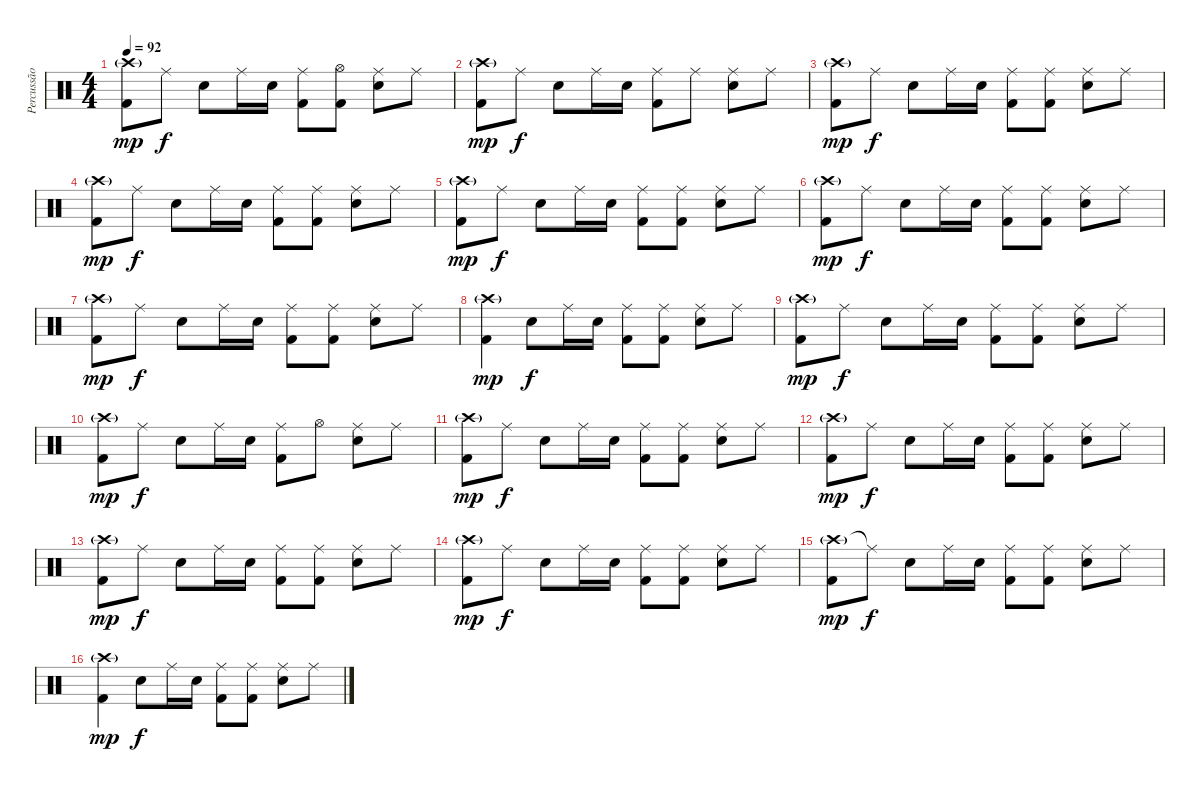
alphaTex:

\track ("Percussão - Drums" "Percussão ") {instrument percussion}
\staff {score}
\articulation defaults
\ts (4 4)
\tempo 92
\clef neutral
\ks c
("Crash high (hit)"{g} "Kick (hit) 2").8{dy mp} "Ride (middle)".8{dy f} "Snare (hit) 2".8 "Ride (middle)".16 "Snare (hit) 2".16 ("Ride (middle)" "Kick (hit) 2").8 ("Hi-Hat (open)" "Kick (hit) 2").8 ("Ride (middle)" "Snare (hit) 2").8 "Ride (middle)".8 |
("Crash high (hit)"{g} "Kick (hit) 2").8{dy mp} "Ride (middle)".8{dy f} "Snare (hit) 2".8 "Ride (middle)".16 "Snare (hit) 2".16 ("Ride (middle)" "Kick (hit) 2").8 "Ride (middle)".8 ("Ride (middle)" "Snare (hit) 2").8 "Ride (middle)".8 |
("Crash high (hit)"{g} "Kick (hit) 2").8{dy mp} "Ride (middle)".8{dy f} "Snare (hit) 2".8 "Ride (middle)".16 "Snare (hit) 2".16 ("Ride (middle)" "Kick (hit) 2").8 ("Ride (middle)" "Kick (hit) 2").8 ("Ride (middle)" "Snare (hit) 2").8 "Ride (middle)".8 |
("Crash high (hit)"{g} "Kick (hit) 2").8{dy mp} "Ride (middle)".8{dy f} "Snare (hit) 2".8 "Ride (middle)".16 "Snare (hit) 2".16 ("Ride (middle)" "Kick (hit) 2").8 ("Ride (middle)" "Kick (hit) 2").8 ("Ride (middle)" "Snare (hit) 2").8 "Ride (middle)".8 |
("Crash high (hit)"{g} "Kick (hit) 2").8{dy mp} "Ride (middle)".8{dy f} "Snare (hit) 2".8 "Ride (middle)".16 "Snare (hit) 2".16 ("Ride (middle)" "Kick (hit) 2").8 ("Ride (middle)" "Kick (hit) 2").8 ("Ride (middle)" "Snare (hit) 2").8 "Ride (middle)".8 |
("Crash high (hit)"{g} "Kick (hit) 2").8{dy mp} "Ride (middle)".8{dy f} "Snare (hit) 2".8 "Ride (middle)".16 "Snare (hit) 2".16 ("Ride (middle)" "Kick (hit) 2").8 ("Ride (middle)" "Kick (hit) 2").8 ("Ride (middle)" "Snare (hit) 2").8 "Ride (middle)".8 |
("Crash high (hit)"{g} "Kick (hit) 2").8{dy mp} "Ride (middle)".8{dy f} "Snare (hit) 2".8 "Ride (middle)".16 "Snare (hit) 2".16 ("Ride (middle)" "Kick (hit) 2").8 ("Ride (middle)" "Kick (hit) 2").8 ("Ride (middle)" "Snare (hit) 2").8 "Ride (middle)".8 |
("Crash high (hit)"{g} "Kick (hit) 2").4{dy mp} "Snare (hit) 2".8{dy f} "Ride (middle)".16 "Snare (hit) 2".16 ("Ride (middle)" "Kick (hit) 2").8 ("Ride (middle)" "Kick (hit) 2").8 ("Ride (middle)" "Snare (hit) 2").8 "Ride (middle)".8 |
("Crash high (hit)"{g} "Kick (hit) 2").8{dy mp} "Ride (middle)".8{dy f} "Snare (hit) 2".8 "Ride (middle)".16 "Snare (hit) 2".16 ("Ride (middle)" "Kick (hit) 2").8 ("Ride (middle)" "Kick (hit) 2").8 ("Ride (middle)" "Snare (hit) 2").8 "Ride (middle)".8 |
("Crash high (hit)"{g} "Kick (hit) 2").8{dy mp} "Ride (middle)".8{dy f} "Snare (hit) 2".8 "Ride (middle)".16 "Snare (hit) 2".16 ("Ride (middle)" "Kick (hit) 2").8 "Hi-Hat (open)".8 ("Ride (middle)" "Snare (hit) 2").8 "Ride (middle)".8 |
("Crash high (hit)"{g} "Kick (hit) 2").8{dy mp} "Ride (middle)".8{dy f} "Snare (hit) 2".8 "Ride (middle)".16 "Snare (hit) 2".16 ("Ride (middle)" "Kick (hit) 2").8 ("Ride (middle)" "Kick (hit) 2").8 ("Ride (middle)" "Snare (hit) 2").8 "Ride (middle)".8 |
("Crash high (hit)"{g} "Kick (hit) 2").8{dy mp} "Ride (middle)".8{dy f} "Snare (hit) 2".8 "Ride (middle)".16 "Snare (hit) 2".16 ("Ride (middle)" "Kick (hit) 2").8 ("Ride (middle)" "Kick (hit) 2").8 ("Ride (middle)" "Snare (hit) 2").8 "Ride (middle)".8 |
("Crash high (hit)"{g} "Kick (hit) 2").8{dy mp} "Ride (middle)".8{dy f} "Snare (hit) 2".8 "Ride (middle)".16 "Snare (hit) 2".16 ("Ride (middle)" "Kick (hit) 2").8 ("Ride (middle)" "Kick (hit) 2").8 ("Ride (middle)" "Snare (hit) 2").8 "Ride (middle)".8 |
("Crash high (hit)"{g} "Kick (hit) 2").8{dy mp} "Ride (middle)".8{dy f} "Snare (hit) 2".8 "Ride (middle)".16 "Snare (hit) 2".16 ("Ride (middle)" "Kick (hit) 2").8 ("Ride (middle)" "Kick (hit) 2").8 ("Ride (middle)" "Snare (hit) 2").8 "Ride (middle)".8 |
("Crash high (hit)"{g} "Kick (hit) 2").8{dy mp} "Ride (middle)"{t}.8{dy f} "Snare (hit) 2".8 "Ride (middle)".16 "Snare (hit) 2".16 ("Ride (middle)" "Kick (hit) 2").8 ("Ride (middle)" "Kick (hit) 2").8 ("Ride (middle)" "Snare (hit) 2").8 "Ride (middle)".8 |
("Crash high (hit)"{g} "Kick (hit) 2").4{dy mp} "Snare (hit) 2".8{dy f} "Ride (middle)".16 "Snare (hit) 2".16 ("Ride (middle)" "Kick (hit) 2").8 ("Ride (middle)" "Kick (hit) 2").8 ("Ride (middle)" "Snare (hit) 2").8 "Ride (middle)".8
